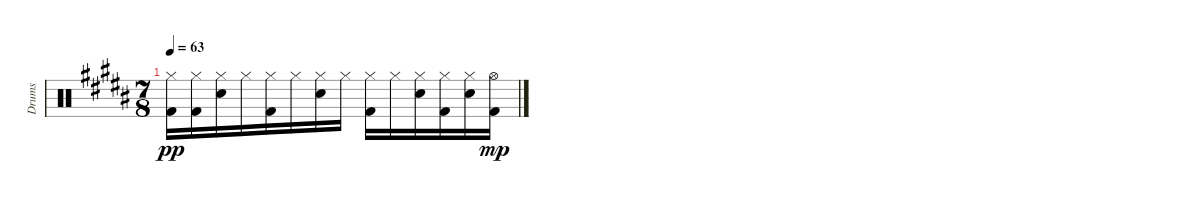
\track ("Drums" "Drums") {instrument percussion}
\staff {score}
\articulation defaults
\ts (7 8)
\tempo 63
\clef neutral
\ks b
("Hi-Hat (closed)" "Kick (hit) 2").16{dy pp} ("Hi-Hat (closed)" "Kick (hit) 2").16 ("Snare (hit) 2" "Hi-Hat (closed)").16 "Hi-Hat (closed)".16 ("Hi-Hat (closed)" "Kick (hit) 2").16 "Hi-Hat (closed)".16 ("Snare (hit) 2" "Hi-Hat (closed)").16 "Hi-Hat (closed)".16 ("Hi-Hat (closed)" "Kick (hit) 2").16 "Hi-Hat (closed)".16 ("Snare (hit) 2" "Hi-Hat (closed)").16 ("Hi-Hat (closed)" "Kick (hit) 2").16 ("Snare (hit) 2" "Hi-Hat (closed)").16 ("Hi-Hat (open)" "Kick (hit) 2").16{dy mp}
